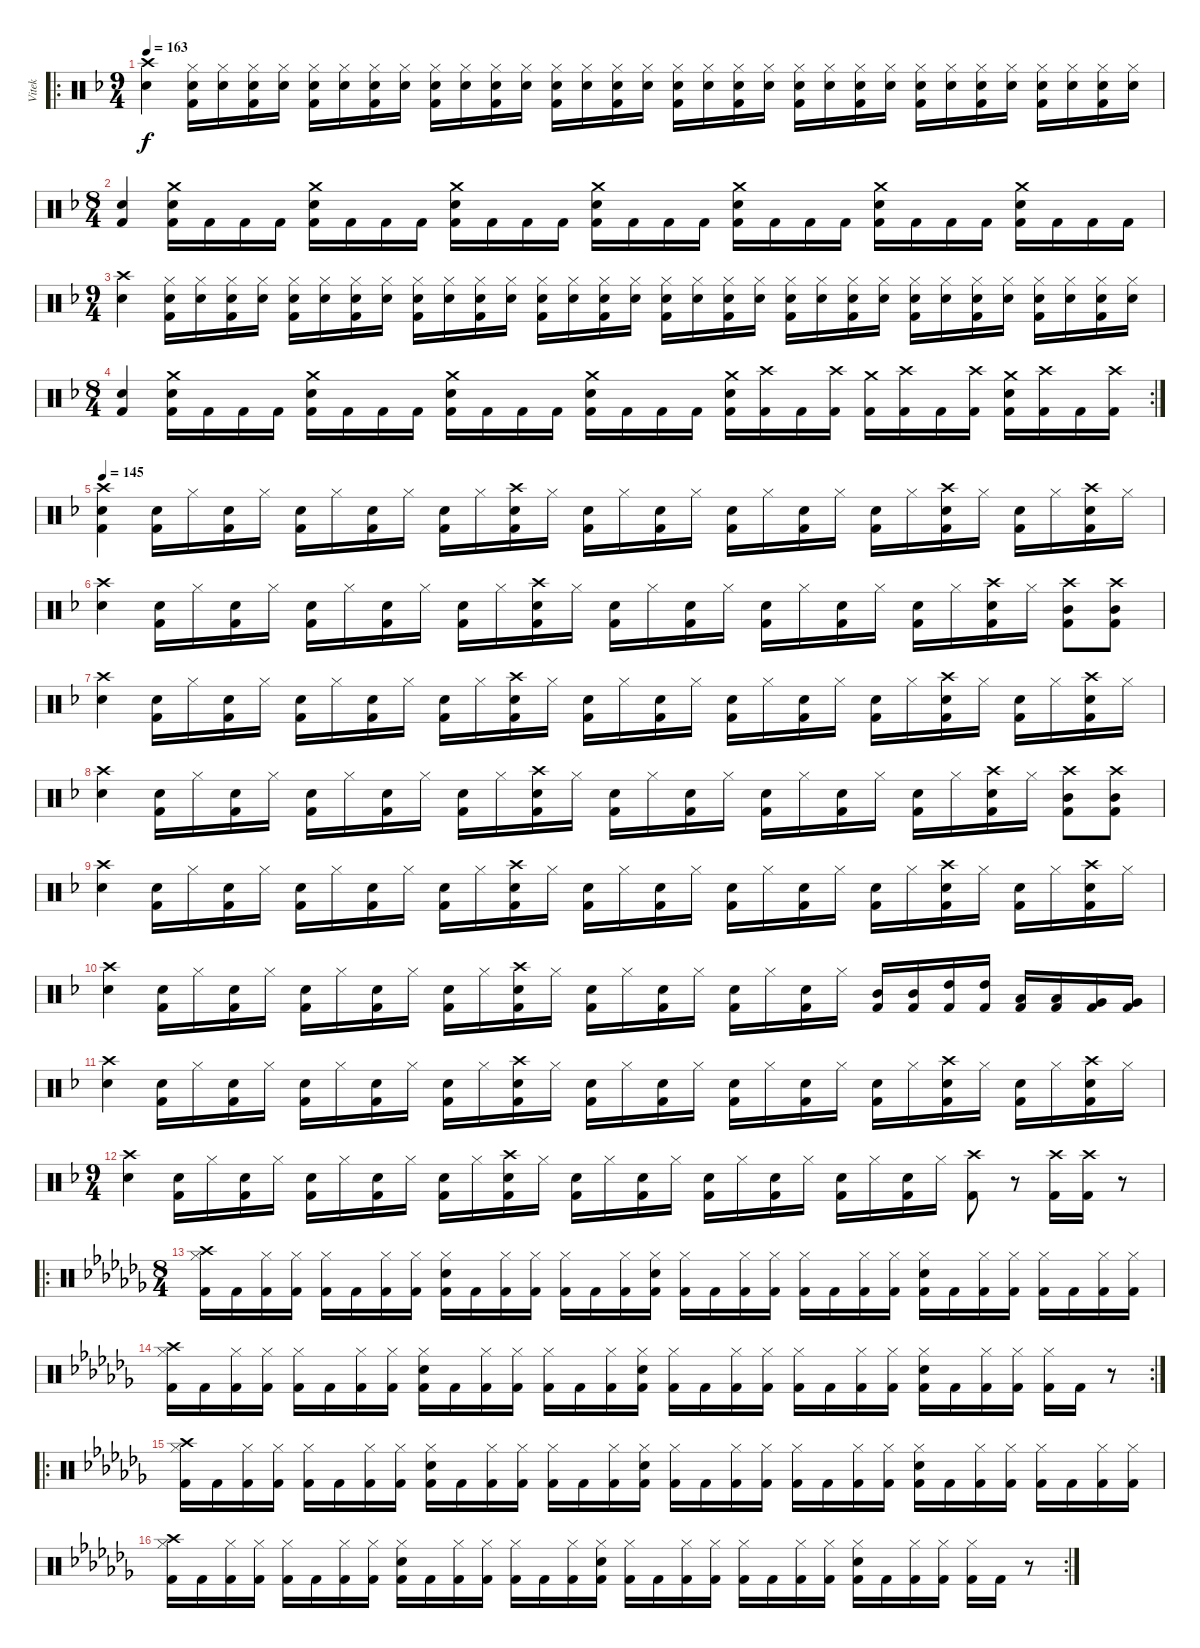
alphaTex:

\track ("Vitek" "Vitek") {instrument percussion}
\staff
\articulation defaults
\ro
\ts (9 4)
\tempo 163
\clef neutral
\ks f
("Crash high (hit)" "Electric Snare (hit)").4{dy f} ("Electric Snare (hit)" "Hi-Hat (closed)" "Kick (hit) 2").16 ("Electric Snare (hit)" "Hi-Hat (closed)").16 ("Electric Snare (hit)" "Hi-Hat (closed)" "Kick (hit) 2").16 ("Electric Snare (hit)" "Hi-Hat (closed)").16 ("Electric Snare (hit)" "Hi-Hat (closed)" "Kick (hit) 2").16 ("Electric Snare (hit)" "Hi-Hat (closed)").16 ("Electric Snare (hit)" "Hi-Hat (closed)" "Kick (hit) 2").16 ("Electric Snare (hit)" "Hi-Hat (closed)").16 ("Electric Snare (hit)" "Hi-Hat (closed)" "Kick (hit) 2").16 ("Electric Snare (hit)" "Hi-Hat (closed)").16 ("Electric Snare (hit)" "Hi-Hat (closed)" "Kick (hit) 2").16 ("Electric Snare (hit)" "Hi-Hat (closed)").16 ("Electric Snare (hit)" "Hi-Hat (closed)" "Kick (hit) 2").16 ("Electric Snare (hit)" "Hi-Hat (closed)").16 ("Electric Snare (hit)" "Hi-Hat (closed)" "Kick (hit) 2").16 ("Electric Snare (hit)" "Hi-Hat (closed)").16 ("Electric Snare (hit)" "Hi-Hat (closed)" "Kick (hit) 2").16 ("Electric Snare (hit)" "Hi-Hat (closed)").16 ("Electric Snare (hit)" "Hi-Hat (closed)" "Kick (hit) 2").16 ("Electric Snare (hit)" "Hi-Hat (closed)").16 ("Electric Snare (hit)" "Hi-Hat (closed)" "Kick (hit) 2").16 ("Electric Snare (hit)" "Hi-Hat (closed)").16 ("Electric Snare (hit)" "Hi-Hat (closed)" "Kick (hit) 2").16 ("Electric Snare (hit)" "Hi-Hat (closed)").16 ("Electric Snare (hit)" "Hi-Hat (closed)" "Kick (hit) 2").16 ("Electric Snare (hit)" "Hi-Hat (closed)").16 ("Electric Snare (hit)" "Hi-Hat (closed)" "Kick (hit) 2").16 ("Electric Snare (hit)" "Hi-Hat (closed)").16 ("Electric Snare (hit)" "Hi-Hat (closed)" "Kick (hit) 2").16 ("Electric Snare (hit)" "Hi-Hat (closed)").16 ("Electric Snare (hit)" "Hi-Hat (closed)" "Kick (hit) 2").16 ("Electric Snare (hit)" "Hi-Hat (closed)").16 |
\ts (8 4)
("Electric Snare (hit)" "Kick (hit) 2").4 ("Crash medium (hit)" "Electric Snare (hit)" "Kick (hit) 2").16 "Kick (hit) 2".16 "Kick (hit) 2".16 "Kick (hit) 2".16 ("Crash medium (hit)" "Electric Snare (hit)" "Kick (hit) 2").16 "Kick (hit) 2".16 "Kick (hit) 2".16 "Kick (hit) 2".16 ("Crash medium (hit)" "Electric Snare (hit)" "Kick (hit) 2").16 "Kick (hit) 2".16 "Kick (hit) 2".16 "Kick (hit) 2".16 ("Crash medium (hit)" "Electric Snare (hit)" "Kick (hit) 2").16 "Kick (hit) 2".16 "Kick (hit) 2".16 "Kick (hit) 2".16 ("Crash medium (hit)" "Electric Snare (hit)" "Kick (hit) 2").16 "Kick (hit) 2".16 "Kick (hit) 2".16 "Kick (hit) 2".16 ("Crash medium (hit)" "Electric Snare (hit)" "Kick (hit) 2").16 "Kick (hit) 2".16 "Kick (hit) 2".16 "Kick (hit) 2".16 ("Crash medium (hit)" "Electric Snare (hit)" "Kick (hit) 2").16 "Kick (hit) 2".16 "Kick (hit) 2".16 "Kick (hit) 2".16 |
\ts (9 4)
("Crash high (hit)" "Electric Snare (hit)").4 ("Electric Snare (hit)" "Hi-Hat (closed)" "Kick (hit) 2").16 ("Electric Snare (hit)" "Hi-Hat (closed)").16 ("Electric Snare (hit)" "Hi-Hat (closed)" "Kick (hit) 2").16 ("Electric Snare (hit)" "Hi-Hat (closed)").16 ("Electric Snare (hit)" "Hi-Hat (closed)" "Kick (hit) 2").16 ("Electric Snare (hit)" "Hi-Hat (closed)").16 ("Electric Snare (hit)" "Hi-Hat (closed)" "Kick (hit) 2").16 ("Electric Snare (hit)" "Hi-Hat (closed)").16 ("Electric Snare (hit)" "Hi-Hat (closed)" "Kick (hit) 2").16 ("Electric Snare (hit)" "Hi-Hat (closed)").16 ("Electric Snare (hit)" "Hi-Hat (closed)" "Kick (hit) 2").16 ("Electric Snare (hit)" "Hi-Hat (closed)").16 ("Electric Snare (hit)" "Hi-Hat (closed)" "Kick (hit) 2").16 ("Electric Snare (hit)" "Hi-Hat (closed)").16 ("Electric Snare (hit)" "Hi-Hat (closed)" "Kick (hit) 2").16 ("Electric Snare (hit)" "Hi-Hat (closed)").16 ("Electric Snare (hit)" "Hi-Hat (closed)" "Kick (hit) 2").16 ("Electric Snare (hit)" "Hi-Hat (closed)").16 ("Electric Snare (hit)" "Hi-Hat (closed)" "Kick (hit) 2").16 ("Electric Snare (hit)" "Hi-Hat (closed)").16 ("Electric Snare (hit)" "Hi-Hat (closed)" "Kick (hit) 2").16 ("Electric Snare (hit)" "Hi-Hat (closed)").16 ("Electric Snare (hit)" "Hi-Hat (closed)" "Kick (hit) 2").16 ("Electric Snare (hit)" "Hi-Hat (closed)").16 ("Electric Snare (hit)" "Hi-Hat (closed)" "Kick (hit) 2").16 ("Electric Snare (hit)" "Hi-Hat (closed)").16 ("Electric Snare (hit)" "Hi-Hat (closed)" "Kick (hit) 2").16 ("Electric Snare (hit)" "Hi-Hat (closed)").16 ("Electric Snare (hit)" "Hi-Hat (closed)" "Kick (hit) 2").16 ("Electric Snare (hit)" "Hi-Hat (closed)").16 ("Electric Snare (hit)" "Hi-Hat (closed)" "Kick (hit) 2").16 ("Electric Snare (hit)" "Hi-Hat (closed)").16 |
\rc 2
\ts (8 4)
("Electric Snare (hit)" "Kick (hit) 2").4 ("Crash medium (hit)" "Electric Snare (hit)" "Kick (hit) 2").16 "Kick (hit) 2".16 "Kick (hit) 2".16 "Kick (hit) 2".16 ("Crash medium (hit)" "Electric Snare (hit)" "Kick (hit) 2").16 "Kick (hit) 2".16 "Kick (hit) 2".16 "Kick (hit) 2".16 ("Crash medium (hit)" "Electric Snare (hit)" "Kick (hit) 2").16 "Kick (hit) 2".16 "Kick (hit) 2".16 "Kick (hit) 2".16 ("Crash medium (hit)" "Electric Snare (hit)" "Kick (hit) 2").16 "Kick (hit) 2".16 "Kick (hit) 2".16 "Kick (hit) 2".16 ("Crash medium (hit)" "Electric Snare (hit)" "Kick (hit) 2").16 ("Crash high (hit)" "Kick (hit) 2").16 "Kick (hit) 2".16 ("Crash high (hit)" "Kick (hit) 2").16 ("Crash medium (hit)" "Kick (hit) 2").16 ("Crash high (hit)" "Kick (hit) 2").16 "Kick (hit) 2".16 ("Crash high (hit)" "Kick (hit) 2").16 ("Crash medium (hit)" "Electric Snare (hit)" "Kick (hit) 2").16 ("Crash high (hit)" "Kick (hit) 2").16 "Kick (hit) 2".16 ("Crash high (hit)" "Kick (hit) 2").16 |
\tempo 145
("Crash high (hit)" "Electric Snare (hit)" "Kick (hit) 2").4 ("Electric Snare (hit)" "Kick (hit) 2").16 "Hi-Hat (closed)".16 ("Electric Snare (hit)" "Kick (hit) 2").16 "Hi-Hat (closed)".16 ("Electric Snare (hit)" "Kick (hit) 2").16 "Hi-Hat (closed)".16 ("Electric Snare (hit)" "Kick (hit) 2").16 "Hi-Hat (closed)".16 ("Electric Snare (hit)" "Kick (hit) 2").16 "Hi-Hat (closed)".16 ("Crash high (hit)" "Electric Snare (hit)" "Kick (hit) 2").16 "Hi-Hat (closed)".16 ("Electric Snare (hit)" "Kick (hit) 2").16 "Hi-Hat (closed)".16 ("Electric Snare (hit)" "Kick (hit) 2").16 "Hi-Hat (closed)".16 ("Electric Snare (hit)" "Kick (hit) 2").16 "Hi-Hat (closed)".16 ("Electric Snare (hit)" "Kick (hit) 2").16 "Hi-Hat (closed)".16 ("Electric Snare (hit)" "Kick (hit) 2").16 "Hi-Hat (closed)".16 ("Crash high (hit)" "Electric Snare (hit)" "Kick (hit) 2").16 "Hi-Hat (closed)".16 ("Electric Snare (hit)" "Kick (hit) 2").16 "Hi-Hat (closed)".16 ("Crash high (hit)" "Electric Snare (hit)" "Kick (hit) 2").16 "Hi-Hat (closed)".16 |
("Crash high (hit)" "Electric Snare (hit)").4 ("Electric Snare (hit)" "Kick (hit) 2").16 "Hi-Hat (closed)".16 ("Electric Snare (hit)" "Kick (hit) 2").16 "Hi-Hat (closed)".16 ("Electric Snare (hit)" "Kick (hit) 2").16 "Hi-Hat (closed)".16 ("Electric Snare (hit)" "Kick (hit) 2").16 "Hi-Hat (closed)".16 ("Electric Snare (hit)" "Kick (hit) 2").16 "Hi-Hat (closed)".16 ("Crash high (hit)" "Electric Snare (hit)" "Kick (hit) 2").16 "Hi-Hat (closed)".16 ("Electric Snare (hit)" "Kick (hit) 2").16 "Hi-Hat (closed)".16 ("Electric Snare (hit)" "Kick (hit) 2").16 "Hi-Hat (closed)".16 ("Electric Snare (hit)" "Kick (hit) 2").16 "Hi-Hat (closed)".16 ("Electric Snare (hit)" "Kick (hit) 2").16 "Hi-Hat (closed)".16 ("Electric Snare (hit)" "Kick (hit) 2").16 "Hi-Hat (closed)".16 ("Crash high (hit)" "Electric Snare (hit)" "Kick (hit) 2").16 "Hi-Hat (closed)".16 ("Crash high (hit)" "Mid Tom (hit)" "Kick (hit) 2").8 ("Crash high (hit)" "Mid Tom (hit)" "Kick (hit) 2").8 |
("Crash high (hit)" "Electric Snare (hit)").4 ("Electric Snare (hit)" "Kick (hit) 2").16 "Hi-Hat (closed)".16 ("Electric Snare (hit)" "Kick (hit) 2").16 "Hi-Hat (closed)".16 ("Electric Snare (hit)" "Kick (hit) 2").16 "Hi-Hat (closed)".16 ("Electric Snare (hit)" "Kick (hit) 2").16 "Hi-Hat (closed)".16 ("Electric Snare (hit)" "Kick (hit) 2").16 "Hi-Hat (closed)".16 ("Crash high (hit)" "Electric Snare (hit)" "Kick (hit) 2").16 "Hi-Hat (closed)".16 ("Electric Snare (hit)" "Kick (hit) 2").16 "Hi-Hat (closed)".16 ("Electric Snare (hit)" "Kick (hit) 2").16 "Hi-Hat (closed)".16 ("Electric Snare (hit)" "Kick (hit) 2").16 "Hi-Hat (closed)".16 ("Electric Snare (hit)" "Kick (hit) 2").16 "Hi-Hat (closed)".16 ("Electric Snare (hit)" "Kick (hit) 2").16 "Hi-Hat (closed)".16 ("Crash high (hit)" "Electric Snare (hit)" "Kick (hit) 2").16 "Hi-Hat (closed)".16 ("Electric Snare (hit)" "Kick (hit) 2").16 "Hi-Hat (closed)".16 ("Crash high (hit)" "Electric Snare (hit)" "Kick (hit) 2").16 "Hi-Hat (closed)".16 |
("Crash high (hit)" "Electric Snare (hit)").4 ("Electric Snare (hit)" "Kick (hit) 2").16 "Hi-Hat (closed)".16 ("Electric Snare (hit)" "Kick (hit) 2").16 "Hi-Hat (closed)".16 ("Electric Snare (hit)" "Kick (hit) 2").16 "Hi-Hat (closed)".16 ("Electric Snare (hit)" "Kick (hit) 2").16 "Hi-Hat (closed)".16 ("Electric Snare (hit)" "Kick (hit) 2").16 "Hi-Hat (closed)".16 ("Crash high (hit)" "Electric Snare (hit)" "Kick (hit) 2").16 "Hi-Hat (closed)".16 ("Electric Snare (hit)" "Kick (hit) 2").16 "Hi-Hat (closed)".16 ("Electric Snare (hit)" "Kick (hit) 2").16 "Hi-Hat (closed)".16 ("Electric Snare (hit)" "Kick (hit) 2").16 "Hi-Hat (closed)".16 ("Electric Snare (hit)" "Kick (hit) 2").16 "Hi-Hat (closed)".16 ("Electric Snare (hit)" "Kick (hit) 2").16 "Hi-Hat (closed)".16 ("Crash high (hit)" "Electric Snare (hit)" "Kick (hit) 2").16 "Hi-Hat (closed)".16 ("Crash high (hit)" "Mid Tom (hit)" "Kick (hit) 2").8 ("Crash high (hit)" "Mid Tom (hit)" "Kick (hit) 2").8 |
("Crash high (hit)" "Electric Snare (hit)").4 ("Electric Snare (hit)" "Kick (hit) 2").16 "Hi-Hat (closed)".16 ("Electric Snare (hit)" "Kick (hit) 2").16 "Hi-Hat (closed)".16 ("Electric Snare (hit)" "Kick (hit) 2").16 "Hi-Hat (closed)".16 ("Electric Snare (hit)" "Kick (hit) 2").16 "Hi-Hat (closed)".16 ("Electric Snare (hit)" "Kick (hit) 2").16 "Hi-Hat (closed)".16 ("Crash high (hit)" "Electric Snare (hit)" "Kick (hit) 2").16 "Hi-Hat (closed)".16 ("Electric Snare (hit)" "Kick (hit) 2").16 "Hi-Hat (closed)".16 ("Electric Snare (hit)" "Kick (hit) 2").16 "Hi-Hat (closed)".16 ("Electric Snare (hit)" "Kick (hit) 2").16 "Hi-Hat (closed)".16 ("Electric Snare (hit)" "Kick (hit) 2").16 "Hi-Hat (closed)".16 ("Electric Snare (hit)" "Kick (hit) 2").16 "Hi-Hat (closed)".16 ("Crash high (hit)" "Electric Snare (hit)" "Kick (hit) 2").16 "Hi-Hat (closed)".16 ("Electric Snare (hit)" "Kick (hit) 2").16 "Hi-Hat (closed)".16 ("Crash high (hit)" "Electric Snare (hit)" "Kick (hit) 2").16 "Hi-Hat (closed)".16 |
("Crash high (hit)" "Electric Snare (hit)").4 ("Electric Snare (hit)" "Kick (hit) 2").16 "Hi-Hat (closed)".16 ("Electric Snare (hit)" "Kick (hit) 2").16 "Hi-Hat (closed)".16 ("Electric Snare (hit)" "Kick (hit) 2").16 "Hi-Hat (closed)".16 ("Electric Snare (hit)" "Kick (hit) 2").16 "Hi-Hat (closed)".16 ("Electric Snare (hit)" "Kick (hit) 2").16 "Hi-Hat (closed)".16 ("Crash high (hit)" "Electric Snare (hit)" "Kick (hit) 2").16 "Hi-Hat (closed)".16 ("Electric Snare (hit)" "Kick (hit) 2").16 "Hi-Hat (closed)".16 ("Electric Snare (hit)" "Kick (hit) 2").16 "Hi-Hat (closed)".16 ("Electric Snare (hit)" "Kick (hit) 2").16 "Hi-Hat (closed)".16 ("Electric Snare (hit)" "Kick (hit) 2").16 "Hi-Hat (closed)".16 ("Mid Tom (hit)" "Kick (hit) 2").16 ("Mid Tom (hit)" "Kick (hit) 2").16 ("High Tom (hit)" "Kick (hit) 2").16 ("High Tom (hit)" "Kick (hit) 2").16 ("Low Tom (hit)" "Kick (hit) 2").16 ("Low Tom (hit)" "Kick (hit) 2").16 ("Very Low Tom (hit)" "Kick (hit) 2").16 ("Very Low Tom (hit)" "Kick (hit) 2").16 |
("Crash high (hit)" "Electric Snare (hit)").4 ("Electric Snare (hit)" "Kick (hit) 2").16 "Hi-Hat (closed)".16 ("Electric Snare (hit)" "Kick (hit) 2").16 "Hi-Hat (closed)".16 ("Electric Snare (hit)" "Kick (hit) 2").16 "Hi-Hat (closed)".16 ("Electric Snare (hit)" "Kick (hit) 2").16 "Hi-Hat (closed)".16 ("Electric Snare (hit)" "Kick (hit) 2").16 "Hi-Hat (closed)".16 ("Crash high (hit)" "Electric Snare (hit)" "Kick (hit) 2").16 "Hi-Hat (closed)".16 ("Electric Snare (hit)" "Kick (hit) 2").16 "Hi-Hat (closed)".16 ("Electric Snare (hit)" "Kick (hit) 2").16 "Hi-Hat (closed)".16 ("Electric Snare (hit)" "Kick (hit) 2").16 "Hi-Hat (closed)".16 ("Electric Snare (hit)" "Kick (hit) 2").16 "Hi-Hat (closed)".16 ("Electric Snare (hit)" "Kick (hit) 2").16 "Hi-Hat (closed)".16 ("Crash high (hit)" "Electric Snare (hit)" "Kick (hit) 2").16 "Hi-Hat (closed)".16 ("Electric Snare (hit)" "Kick (hit) 2").16 "Hi-Hat (closed)".16 ("Crash high (hit)" "Electric Snare (hit)" "Kick (hit) 2").16 "Hi-Hat (closed)".16 |
\ts (9 4)
("Crash high (hit)" "Electric Snare (hit)").4 ("Electric Snare (hit)" "Kick (hit) 2").16 "Hi-Hat (closed)".16 ("Electric Snare (hit)" "Kick (hit) 2").16 "Hi-Hat (closed)".16 ("Electric Snare (hit)" "Kick (hit) 2").16 "Hi-Hat (closed)".16 ("Electric Snare (hit)" "Kick (hit) 2").16 "Hi-Hat (closed)".16 ("Electric Snare (hit)" "Kick (hit) 2").16 "Hi-Hat (closed)".16 ("Crash high (hit)" "Electric Snare (hit)" "Kick (hit) 2").16 "Hi-Hat (closed)".16 ("Electric Snare (hit)" "Kick (hit) 2").16 "Hi-Hat (closed)".16 ("Electric Snare (hit)" "Kick (hit) 2").16 "Hi-Hat (closed)".16 ("Electric Snare (hit)" "Kick (hit) 2").16 "Hi-Hat (closed)".16 ("Electric Snare (hit)" "Kick (hit) 2").16 "Hi-Hat (closed)".16 ("Electric Snare (hit)" "Kick (hit) 2").16 "Hi-Hat (closed)".16 ("Electric Snare (hit)" "Kick (hit) 2").16 "Hi-Hat (closed)".16 ("Crash high (hit)" "Kick (hit) 2").8 r.8 ("Crash high (hit)" "Kick (hit) 2").16 ("Crash high (hit)" "Kick (hit) 2").16 r.8 |
\ro
\ts (8 4)
\ks cb
("Hi-Hat (closed)" "Crash high (hit)" "Kick (hit) 2").16 "Kick (hit) 2".16 ("Hi-Hat (closed)" "Kick (hit) 2").16 ("Hi-Hat (closed)" "Kick (hit) 2").16 ("Hi-Hat (closed)" "Kick (hit) 2").16 "Kick (hit) 2".16 ("Hi-Hat (closed)" "Kick (hit) 2").16 ("Hi-Hat (closed)" "Kick (hit) 2").16 ("Hi-Hat (closed)" "Electric Snare (hit)" "Kick (hit) 2").16 "Kick (hit) 2".16 ("Hi-Hat (closed)" "Kick (hit) 2").16 ("Hi-Hat (closed)" "Kick (hit) 2").16 ("Hi-Hat (closed)" "Kick (hit) 2").16 "Kick (hit) 2".16 ("Hi-Hat (closed)" "Kick (hit) 2").16 ("Hi-Hat (closed)" "Electric Snare (hit)" "Kick (hit) 2").16 ("Hi-Hat (closed)" "Kick (hit) 2").16 "Kick (hit) 2".16 ("Hi-Hat (closed)" "Kick (hit) 2").16 ("Hi-Hat (closed)" "Kick (hit) 2").16 ("Hi-Hat (closed)" "Kick (hit) 2").16 "Kick (hit) 2".16 ("Hi-Hat (closed)" "Kick (hit) 2").16 ("Hi-Hat (closed)" "Kick (hit) 2").16 ("Hi-Hat (closed)" "Electric Snare (hit)" "Kick (hit) 2").16 "Kick (hit) 2".16 ("Hi-Hat (closed)" "Kick (hit) 2").16 ("Hi-Hat (closed)" "Kick (hit) 2").16 ("Hi-Hat (closed)" "Kick (hit) 2").16 "Kick (hit) 2".16 ("Hi-Hat (closed)" "Kick (hit) 2").16 ("Hi-Hat (closed)" "Kick (hit) 2").16 |
\rc 2
("Hi-Hat (closed)" "Crash high (hit)" "Kick (hit) 2").16 "Kick (hit) 2".16 ("Hi-Hat (closed)" "Kick (hit) 2").16 ("Hi-Hat (closed)" "Kick (hit) 2").16 ("Hi-Hat (closed)" "Kick (hit) 2").16 "Kick (hit) 2".16 ("Hi-Hat (closed)" "Kick (hit) 2").16 ("Hi-Hat (closed)" "Kick (hit) 2").16 ("Hi-Hat (closed)" "Electric Snare (hit)" "Kick (hit) 2").16 "Kick (hit) 2".16 ("Hi-Hat (closed)" "Kick (hit) 2").16 ("Hi-Hat (closed)" "Kick (hit) 2").16 ("Hi-Hat (closed)" "Kick (hit) 2").16 "Kick (hit) 2".16 ("Hi-Hat (closed)" "Kick (hit) 2").16 ("Hi-Hat (closed)" "Electric Snare (hit)" "Kick (hit) 2").16 ("Hi-Hat (closed)" "Kick (hit) 2").16 "Kick (hit) 2".16 ("Hi-Hat (closed)" "Kick (hit) 2").16 ("Hi-Hat (closed)" "Kick (hit) 2").16 ("Hi-Hat (closed)" "Kick (hit) 2").16 "Kick (hit) 2".16 ("Hi-Hat (closed)" "Kick (hit) 2").16 ("Hi-Hat (closed)" "Kick (hit) 2").16 ("Hi-Hat (closed)" "Electric Snare (hit)" "Kick (hit) 2").16 "Kick (hit) 2".16 ("Hi-Hat (closed)" "Kick (hit) 2").16 ("Hi-Hat (closed)" "Kick (hit) 2").16 ("Hi-Hat (closed)" "Kick (hit) 2").16 "Kick (hit) 2".16 r.8 |
\ro
("Hi-Hat (closed)" "Crash high (hit)" "Kick (hit) 2").16 "Kick (hit) 2".16 ("Hi-Hat (closed)" "Kick (hit) 2").16 ("Hi-Hat (closed)" "Kick (hit) 2").16 ("Hi-Hat (closed)" "Kick (hit) 2").16 "Kick (hit) 2".16 ("Hi-Hat (closed)" "Kick (hit) 2").16 ("Hi-Hat (closed)" "Kick (hit) 2").16 ("Hi-Hat (closed)" "Electric Snare (hit)" "Kick (hit) 2").16 "Kick (hit) 2".16 ("Hi-Hat (closed)" "Kick (hit) 2").16 ("Hi-Hat (closed)" "Kick (hit) 2").16 ("Hi-Hat (closed)" "Kick (hit) 2").16 "Kick (hit) 2".16 ("Hi-Hat (closed)" "Kick (hit) 2").16 ("Hi-Hat (closed)" "Electric Snare (hit)" "Kick (hit) 2").16 ("Hi-Hat (closed)" "Kick (hit) 2").16 "Kick (hit) 2".16 ("Hi-Hat (closed)" "Kick (hit) 2").16 ("Hi-Hat (closed)" "Kick (hit) 2").16 ("Hi-Hat (closed)" "Kick (hit) 2").16 "Kick (hit) 2".16 ("Hi-Hat (closed)" "Kick (hit) 2").16 ("Hi-Hat (closed)" "Kick (hit) 2").16 ("Hi-Hat (closed)" "Electric Snare (hit)" "Kick (hit) 2").16 "Kick (hit) 2".16 ("Hi-Hat (closed)" "Kick (hit) 2").16 ("Hi-Hat (closed)" "Kick (hit) 2").16 ("Hi-Hat (closed)" "Kick (hit) 2").16 "Kick (hit) 2".16 ("Hi-Hat (closed)" "Kick (hit) 2").16 ("Hi-Hat (closed)" "Kick (hit) 2").16 |
\rc 2
("Hi-Hat (closed)" "Crash high (hit)" "Kick (hit) 2").16 "Kick (hit) 2".16 ("Hi-Hat (closed)" "Kick (hit) 2").16 ("Hi-Hat (closed)" "Kick (hit) 2").16 ("Hi-Hat (closed)" "Kick (hit) 2").16 "Kick (hit) 2".16 ("Hi-Hat (closed)" "Kick (hit) 2").16 ("Hi-Hat (closed)" "Kick (hit) 2").16 ("Hi-Hat (closed)" "Electric Snare (hit)" "Kick (hit) 2").16 "Kick (hit) 2".16 ("Hi-Hat (closed)" "Kick (hit) 2").16 ("Hi-Hat (closed)" "Kick (hit) 2").16 ("Hi-Hat (closed)" "Kick (hit) 2").16 "Kick (hit) 2".16 ("Hi-Hat (closed)" "Kick (hit) 2").16 ("Hi-Hat (closed)" "Electric Snare (hit)" "Kick (hit) 2").16 ("Hi-Hat (closed)" "Kick (hit) 2").16 "Kick (hit) 2".16 ("Hi-Hat (closed)" "Kick (hit) 2").16 ("Hi-Hat (closed)" "Kick (hit) 2").16 ("Hi-Hat (closed)" "Kick (hit) 2").16 "Kick (hit) 2".16 ("Hi-Hat (closed)" "Kick (hit) 2").16 ("Hi-Hat (closed)" "Kick (hit) 2").16 ("Hi-Hat (closed)" "Electric Snare (hit)" "Kick (hit) 2").16 "Kick (hit) 2".16 ("Hi-Hat (closed)" "Kick (hit) 2").16 ("Hi-Hat (closed)" "Kick (hit) 2").16 ("Hi-Hat (closed)" "Kick (hit) 2").16 "Kick (hit) 2".16 r.8
